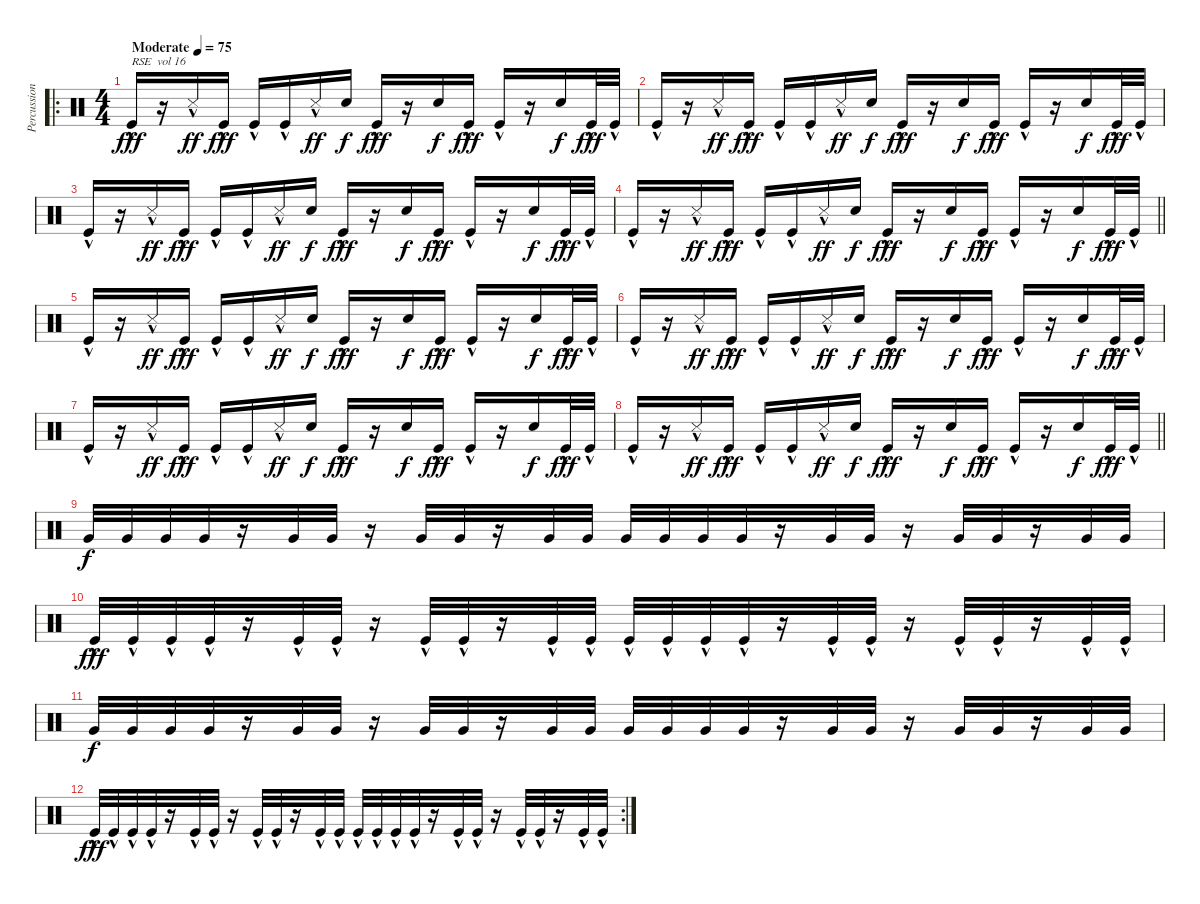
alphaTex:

\track ("Percussion" "Percussion") {instrument percussion}
\staff {score}
\articulation defaults
\ro
\ts (4 4)
\tempo (75 "Moderate")
\clef neutral
\ks c "Kick (hit)"{hac}.16{txt "RSE  vol 16" dy fff volume 16}
r.16 "Snare (side stick) 3"{hac}.16{dy ff} "Kick (hit)"{hac}.16{dy fff} "Kick (hit)"{hac}.16 "Kick (hit)"{hac}.16 "Snare (side stick) 3"{hac}.16{dy ff} "Electric Snare (hit)".16{dy f} "Kick (hit)"{hac}.16{dy fff} r.16 "Electric Snare (hit)".16{dy f} "Kick (hit)"{hac}.16{dy fff} "Kick (hit)"{hac}.16 r.16 "Electric Snare (hit)".16{dy f} "Kick (hit)"{hac}.32{dy fff} "Kick (hit)"{hac}.32 |
"Kick (hit)"{hac}.16 r.16 "Snare (side stick) 3"{hac}.16{dy ff} "Kick (hit)"{hac}.16{dy fff} "Kick (hit)"{hac}.16 "Kick (hit)"{hac}.16 "Snare (side stick) 3"{hac}.16{dy ff} "Electric Snare (hit)".16{dy f} "Kick (hit)"{hac}.16{dy fff} r.16 "Electric Snare (hit)".16{dy f} "Kick (hit)"{hac}.16{dy fff} "Kick (hit)"{hac}.16 r.16 "Electric Snare (hit)".16{dy f} "Kick (hit)"{hac}.32{dy fff} "Kick (hit)"{hac}.32 |
"Kick (hit)"{hac}.16 r.16 "Snare (side stick) 3"{hac}.16{dy ff} "Kick (hit)"{hac}.16{dy fff} "Kick (hit)"{hac}.16 "Kick (hit)"{hac}.16 "Snare (side stick) 3"{hac}.16{dy ff} "Electric Snare (hit)".16{dy f} "Kick (hit)"{hac}.16{dy fff} r.16 "Electric Snare (hit)".16{dy f} "Kick (hit)"{hac}.16{dy fff} "Kick (hit)"{hac}.16 r.16 "Electric Snare (hit)".16{dy f} "Kick (hit)"{hac}.32{dy fff} "Kick (hit)"{hac}.32 |
\barLineRight lightlight "Kick (hit)"{hac}.16
r.16 "Snare (side stick) 3"{hac}.16{dy ff} "Kick (hit)"{hac}.16{dy fff} "Kick (hit)"{hac}.16 "Kick (hit)"{hac}.16 "Snare (side stick) 3"{hac}.16{dy ff} "Electric Snare (hit)".16{dy f} "Kick (hit)"{hac}.16{dy fff} r.16 "Electric Snare (hit)".16{dy f} "Kick (hit)"{hac}.16{dy fff} "Kick (hit)"{hac}.16 r.16 "Electric Snare (hit)".16{dy f} "Kick (hit)"{hac}.32{dy fff} "Kick (hit)"{hac}.32 |
"Kick (hit)"{hac}.16 r.16 "Snare (side stick) 3"{hac}.16{dy ff} "Kick (hit)"{hac}.16{dy fff} "Kick (hit)"{hac}.16 "Kick (hit)"{hac}.16 "Snare (side stick) 3"{hac}.16{dy ff} "Electric Snare (hit)".16{dy f} "Kick (hit)"{hac}.16{dy fff} r.16 "Electric Snare (hit)".16{dy f} "Kick (hit)"{hac}.16{dy fff} "Kick (hit)"{hac}.16 r.16 "Electric Snare (hit)".16{dy f} "Kick (hit)"{hac}.32{dy fff} "Kick (hit)"{hac}.32 |
"Kick (hit)"{hac}.16 r.16 "Snare (side stick) 3"{hac}.16{dy ff} "Kick (hit)"{hac}.16{dy fff} "Kick (hit)"{hac}.16 "Kick (hit)"{hac}.16 "Snare (side stick) 3"{hac}.16{dy ff} "Electric Snare (hit)".16{dy f} "Kick (hit)"{hac}.16{dy fff} r.16 "Electric Snare (hit)".16{dy f} "Kick (hit)"{hac}.16{dy fff} "Kick (hit)"{hac}.16 r.16 "Electric Snare (hit)".16{dy f} "Kick (hit)"{hac}.32{dy fff} "Kick (hit)"{hac}.32 |
"Kick (hit)"{hac}.16 r.16 "Snare (side stick) 3"{hac}.16{dy ff} "Kick (hit)"{hac}.16{dy fff} "Kick (hit)"{hac}.16 "Kick (hit)"{hac}.16 "Snare (side stick) 3"{hac}.16{dy ff} "Electric Snare (hit)".16{dy f} "Kick (hit)"{hac}.16{dy fff} r.16 "Electric Snare (hit)".16{dy f} "Kick (hit)"{hac}.16{dy fff} "Kick (hit)"{hac}.16 r.16 "Electric Snare (hit)".16{dy f} "Kick (hit)"{hac}.32{dy fff} "Kick (hit)"{hac}.32 |
\barLineRight lightlight "Kick (hit)"{hac}.16
r.16 "Snare (side stick) 3"{hac}.16{dy ff} "Kick (hit)"{hac}.16{dy fff} "Kick (hit)"{hac}.16 "Kick (hit)"{hac}.16 "Snare (side stick) 3"{hac}.16{dy ff} "Electric Snare (hit)".16{dy f} "Kick (hit)"{hac}.16{dy fff} r.16 "Electric Snare (hit)".16{dy f} "Kick (hit)"{hac}.16{dy fff} "Kick (hit)"{hac}.16 r.16 "Electric Snare (hit)".16{dy f} "Kick (hit)"{hac}.32{dy fff} "Kick (hit)"{hac}.32 |
"Very Low Tom (hit)".32{dy f volume 7} "Very Low Tom (hit)".32 "Very Low Tom (hit)".32 "Very Low Tom (hit)".32 r.16 "Very Low Tom (hit)".32 "Very Low Tom (hit)".32 r.16 "Very Low Tom (hit)".32 "Very Low Tom (hit)".32 r.16 "Very Low Tom (hit)".32 "Very Low Tom (hit)".32 "Very Low Tom (hit)".32 "Very Low Tom (hit)".32 "Very Low Tom (hit)".32 "Very Low Tom (hit)".32 r.16 "Very Low Tom (hit)".32 "Very Low Tom (hit)".32 r.16 "Very Low Tom (hit)".32 "Very Low Tom (hit)".32 r.16 "Very Low Tom (hit)".32 "Very Low Tom (hit)".32 |
"Kick (hit)"{hac}.32{dy fff} "Kick (hit)"{hac}.32 "Kick (hit)"{hac}.32 "Kick (hit)"{hac}.32 r.16 "Kick (hit)"{hac}.32 "Kick (hit)"{hac}.32 r.16 "Kick (hit)"{hac}.32 "Kick (hit)"{hac}.32 r.16 "Kick (hit)"{hac}.32 "Kick (hit)"{hac}.32 "Kick (hit)"{hac}.32 "Kick (hit)"{hac}.32 "Kick (hit)"{hac}.32 "Kick (hit)"{hac}.32 r.16 "Kick (hit)"{hac}.32 "Kick (hit)"{hac}.32 r.16 "Kick (hit)"{hac}.32 "Kick (hit)"{hac}.32 r.16 "Kick (hit)"{hac}.32 "Kick (hit)"{hac}.32 |
"Very Low Tom (hit)".32{dy f} "Very Low Tom (hit)".32 "Very Low Tom (hit)".32 "Very Low Tom (hit)".32 r.16 "Very Low Tom (hit)".32 "Very Low Tom (hit)".32 r.16 "Very Low Tom (hit)".32 "Very Low Tom (hit)".32 r.16 "Very Low Tom (hit)".32 "Very Low Tom (hit)".32 "Very Low Tom (hit)".32 "Very Low Tom (hit)".32 "Very Low Tom (hit)".32 "Very Low Tom (hit)".32 r.16 "Very Low Tom (hit)".32 "Very Low Tom (hit)".32 r.16 "Very Low Tom (hit)".32 "Very Low Tom (hit)".32 r.16 "Very Low Tom (hit)".32 "Very Low Tom (hit)".32 |
\rc 2 "Kick (hit)"{hac}.32{dy fff} "Kick (hit)"{hac}.32 "Kick (hit)"{hac}.32 "Kick (hit)"{hac}.32
r.16 "Kick (hit)"{hac}.32 "Kick (hit)"{hac}.32 r.16 "Kick (hit)"{hac}.32 "Kick (hit)"{hac}.32 r.16 "Kick (hit)"{hac}.32 "Kick (hit)"{hac}.32 "Kick (hit)"{hac}.32 "Kick (hit)"{hac}.32 "Kick (hit)"{hac}.32 "Kick (hit)"{hac}.32 r.16 "Kick (hit)"{hac}.32 "Kick (hit)"{hac}.32 r.16 "Kick (hit)"{hac}.32 "Kick (hit)"{hac}.32 r.16 "Kick (hit)"{hac}.32 "Kick (hit)"{hac}.32
